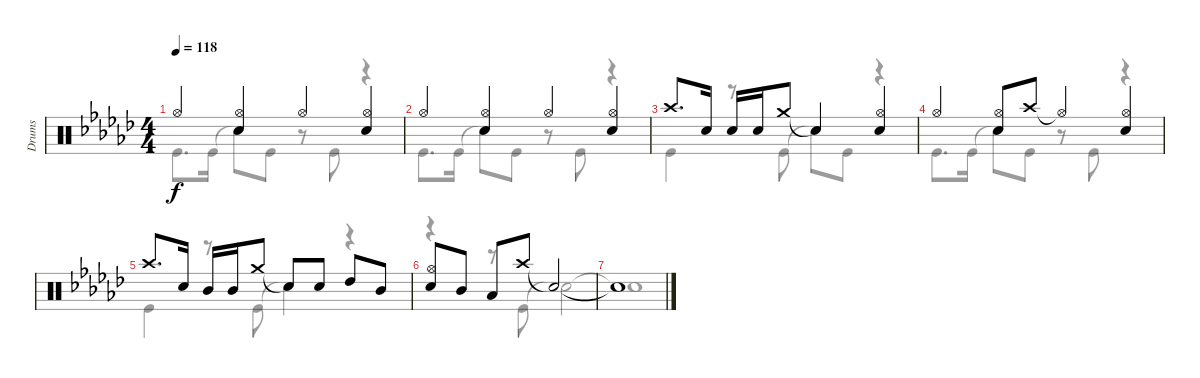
\track ("Drums" "Drums") {instrument percussion}
\staff {score}
\articulation defaults
\voice
\ts (4 4)
\tempo 118
\clef neutral
\ks gb "Hi-Hat (open)".4{dy f}
("Hi-Hat (open)" "Snare (hit) 2").4 "Hi-Hat (open)".4 ("Hi-Hat (open)" "Snare (hit) 2").4 |
"Hi-Hat (open)".4 ("Hi-Hat (open)" "Snare (hit) 2").4 "Hi-Hat (open)".4 ("Hi-Hat (open)" "Snare (hit) 2").4 |
"Crash high (hit)".8{d} "Snare (hit) 2".16 "Snare (hit) 2".16 "Snare (hit) 2".16 "Crash medium (hit)".8 "Snare (hit)"{t}.4 ("Hi-Hat (open)" "Snare (hit) 2").4 |
"Hi-Hat (open)".4 ("Hi-Hat (open)" "Snare (hit) 2").8 "Crash high (hit)".8 "Hi-Hat (open)"{t}.4 ("Hi-Hat (open)" "Snare (hit) 2").4 |
"Crash high (hit)".8{d} "Snare (hit) 2".16 "Mid Tom (hit)".16 "Mid Tom (hit)".16 "Crash medium (hit)".8 "Snare (hit)"{t}.8 "Snare (hit) 2".8 "High Tom (hit)".8 "Mid Tom (hit)".8 |
("Hi-Hat (open)" "Snare (hit) 2").8 "Mid Tom (hit)".8 "Low Tom (hit)".8 "Crash high (hit)".8 "Snare (hit)"{t}.2 |
"Snare (hit)"{t}.1
\voice
\clef neutral
\ottava regular
\simile none
\ks gb "Kick (hit)".8{d dy f} "Kick (hit)".16 "Snare (hit)"{t}.8 "Kick (hit)".8
r.8 "Kick (hit)".8 r.4 |
"Kick (hit)".8{d} "Kick (hit)".16 "Snare (hit)"{t}.8 "Kick (hit)".8 r.8 "Kick (hit)".8 r.4 |
"Kick (hit)".4 r.8 "Kick (hit)".8 "Snare (hit)"{t}.8 "Kick (hit)".8 r.4 |
"Kick (hit)".8{d} "Kick (hit)".16 "Snare (hit)"{t}.8 "Kick (hit)".8 r.8 "Kick (hit)".8 r.4 |
"Kick (hit)".4 r.8 "Kick (hit)".8 "Snare (hit)"{t}.4 r.4 |
r.4 r.8 "Kick (hit)".8 "Snare (hit)"{t}.2 |
"Snare (hit)"{t}.1
